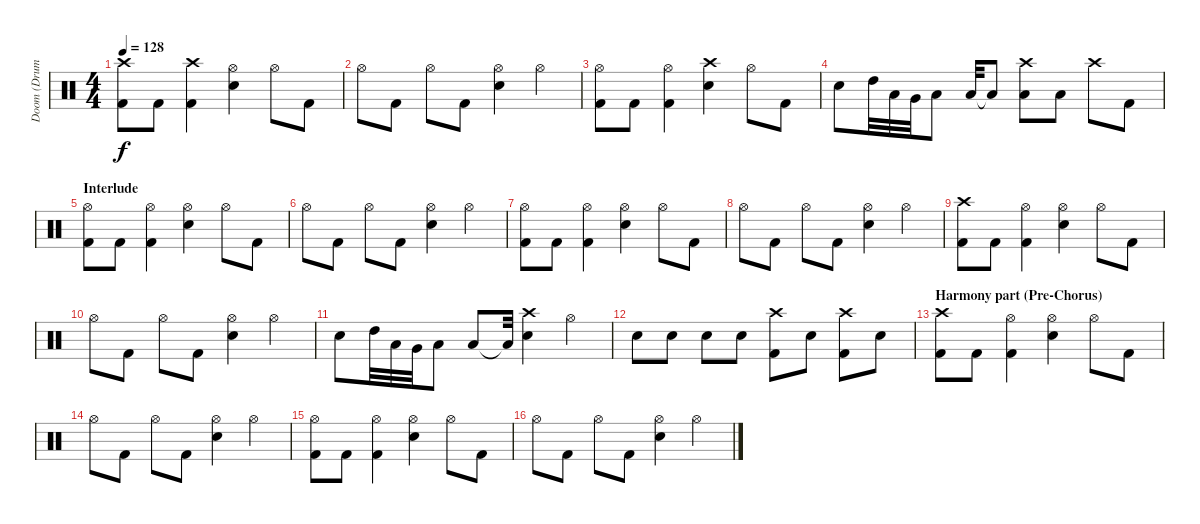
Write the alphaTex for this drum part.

\track ("Doom (Drums)" "Doom (Drum") {instrument percussion}
\staff {score}
\articulation defaults
\ts (4 4)
\tempo 128
\clef neutral
\ks c
("Crash high (hit)" "Kick (hit) 2").8{dy f} "Kick (hit) 2".8 ("Crash high (hit)" "Kick (hit) 2").4 ("Hi-Hat (open)" "Electric Snare (hit)").4 "Hi-Hat (open)".8 "Kick (hit) 2".8 |
"Hi-Hat (open)".8 "Kick (hit) 2".8 "Hi-Hat (open)".8 "Kick (hit) 2".8 ("Hi-Hat (open)" "Electric Snare (hit)").4 "Hi-Hat (open)".4 |
("Hi-Hat (open)" "Kick (hit) 2").8 "Kick (hit) 2".8 ("Hi-Hat (open)" "Kick (hit) 2").4 ("Crash high (hit)" "Electric Snare (hit)").4 "Hi-Hat (open)".8 "Kick (hit) 2".8 |
"Electric Snare (hit)".8 "High Tom (hit)".32 "Low Tom (hit)".32 "Very Low Tom (hit)".32 "Low Floor Tom (hit)".8 "Low Floor Tom (hit)".32 "Low Floor Tom (hit)"{t}.8 ("Crash high (hit)" "Low Floor Tom (hit)").8 "Low Floor Tom (hit)".8 "Crash high (hit)".8 "Kick (hit) 2".8 |
\section ("" "Interlude")
("Hi-Hat (open)" "Kick (hit) 2").8 "Kick (hit) 2".8 ("Hi-Hat (open)" "Kick (hit) 2").4 ("Hi-Hat (open)" "Electric Snare (hit)").4 "Hi-Hat (open)".8 "Kick (hit) 2".8 |
"Hi-Hat (open)".8 "Kick (hit) 2".8 "Hi-Hat (open)".8 "Kick (hit) 2".8 ("Hi-Hat (open)" "Electric Snare (hit)").4 "Hi-Hat (open)".4 |
("Hi-Hat (open)" "Kick (hit) 2").8 "Kick (hit) 2".8 ("Hi-Hat (open)" "Kick (hit) 2").4 ("Hi-Hat (open)" "Electric Snare (hit)").4 "Hi-Hat (open)".8 "Kick (hit) 2".8 |
"Hi-Hat (open)".8 "Kick (hit) 2".8 "Hi-Hat (open)".8 "Kick (hit) 2".8 ("Hi-Hat (open)" "Electric Snare (hit)").4 "Hi-Hat (open)".4 |
("Crash high (hit)" "Kick (hit) 2").8 "Kick (hit) 2".8 ("Hi-Hat (open)" "Kick (hit) 2").4 ("Hi-Hat (open)" "Electric Snare (hit)").4 "Hi-Hat (open)".8 "Kick (hit) 2".8 |
"Hi-Hat (open)".8 "Kick (hit) 2".8 "Hi-Hat (open)".8 "Kick (hit) 2".8 ("Hi-Hat (open)" "Electric Snare (hit)").4 "Hi-Hat (open)".4 |
"Electric Snare (hit)".8 "High Tom (hit)".32 "Low Tom (hit)".32 "Very Low Tom (hit)".32 "Low Floor Tom (hit)".8 "Low Floor Tom (hit)".8 "Low Floor Tom (hit)"{t}.32 ("Crash high (hit)" "Electric Snare (hit)").4 "Hi-Hat (open)".4 |
"Electric Snare (hit)".8 "Electric Snare (hit)".8 "Electric Snare (hit)".8 "Electric Snare (hit)".8 ("Crash high (hit)" "Kick (hit) 2").8 "Electric Snare (hit)".8 ("Crash high (hit)" "Kick (hit) 2").8 "Electric Snare (hit)".8 |
\section ("" "Harmony part (Pre-Chorus)")
("Crash high (hit)" "Kick (hit) 2").8 "Kick (hit) 2".8 ("Hi-Hat (open)" "Kick (hit) 2").4 ("Hi-Hat (open)" "Electric Snare (hit)").4 "Hi-Hat (open)".8 "Kick (hit) 2".8 |
"Hi-Hat (open)".8 "Kick (hit) 2".8 "Hi-Hat (open)".8 "Kick (hit) 2".8 ("Hi-Hat (open)" "Electric Snare (hit)").4 "Hi-Hat (open)".4 |
("Hi-Hat (open)" "Kick (hit) 2").8 "Kick (hit) 2".8 ("Hi-Hat (open)" "Kick (hit) 2").4 ("Hi-Hat (open)" "Electric Snare (hit)").4 "Hi-Hat (open)".8 "Kick (hit) 2".8 |
"Hi-Hat (open)".8 "Kick (hit) 2".8 "Hi-Hat (open)".8 "Kick (hit) 2".8 ("Hi-Hat (open)" "Electric Snare (hit)").4 "Hi-Hat (open)".4
